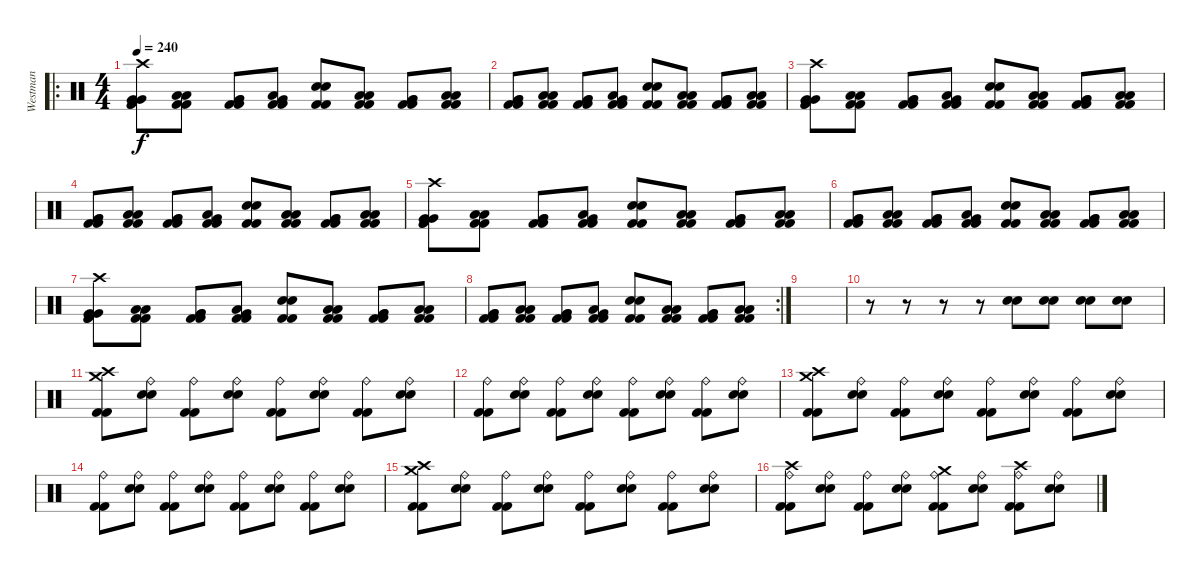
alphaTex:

\track ("Westman" "Westman") {instrument percussion}
\staff {score}
\articulation defaults
\ro
\ts (4 4)
\tempo 240
\clef neutral
\ks c
("Kick (hit) 2" "Kick (hit) 2" "Very Low Tom (hit)" "Very Low Tom (hit)" "Crash high (hit)").8{dy f} ("Kick (hit) 2" "Kick (hit) 2" "Low Tom (hit)" "Low Tom (hit)").8 ("Kick (hit) 2" "Kick (hit) 2" "Very Low Tom (hit)" "Very Low Tom (hit)").8 ("Kick (hit) 2" "Kick (hit) 2" "Low Tom (hit)" "Very Low Tom (hit)").8 ("Kick (hit) 2" "Kick (hit) 2" "Snare (hit) 2" "Electric Snare (hit)").8 ("Kick (hit) 2" "Kick (hit) 2" "Low Tom (hit)" "Low Tom (hit)").8 ("Kick (hit) 2" "Kick (hit) 2" "Very Low Tom (hit)" "Very Low Tom (hit)").8 ("Kick (hit) 2" "Kick (hit) 2" "Low Tom (hit)" "Low Tom (hit)").8 |
("Kick (hit) 2" "Kick (hit) 2" "Very Low Tom (hit)" "Very Low Tom (hit)").8 ("Kick (hit) 2" "Kick (hit) 2" "Low Tom (hit)" "Low Tom (hit)").8 ("Kick (hit) 2" "Kick (hit) 2" "Very Low Tom (hit)" "Very Low Tom (hit)").8 ("Kick (hit) 2" "Kick (hit) 2" "Low Tom (hit)" "Very Low Tom (hit)").8 ("Kick (hit) 2" "Kick (hit) 2" "Snare (hit) 2" "Electric Snare (hit)").8 ("Kick (hit) 2" "Kick (hit) 2" "Low Tom (hit)" "Low Tom (hit)").8 ("Kick (hit) 2" "Kick (hit) 2" "Very Low Tom (hit)" "Very Low Tom (hit)").8 ("Kick (hit) 2" "Kick (hit) 2" "Low Tom (hit)" "Low Tom (hit)").8 |
("Kick (hit) 2" "Kick (hit) 2" "Very Low Tom (hit)" "Very Low Tom (hit)" "Crash high (hit)").8 ("Kick (hit) 2" "Kick (hit) 2" "Low Tom (hit)" "Low Tom (hit)").8 ("Kick (hit) 2" "Kick (hit) 2" "Very Low Tom (hit)" "Very Low Tom (hit)").8 ("Kick (hit) 2" "Kick (hit) 2" "Low Tom (hit)" "Very Low Tom (hit)").8 ("Kick (hit) 2" "Kick (hit) 2" "Snare (hit) 2" "Electric Snare (hit)").8 ("Kick (hit) 2" "Kick (hit) 2" "Low Tom (hit)" "Low Tom (hit)").8 ("Kick (hit) 2" "Kick (hit) 2" "Very Low Tom (hit)" "Very Low Tom (hit)").8 ("Kick (hit) 2" "Kick (hit) 2" "Low Tom (hit)" "Low Tom (hit)").8 |
("Kick (hit) 2" "Kick (hit) 2" "Very Low Tom (hit)" "Very Low Tom (hit)").8 ("Kick (hit) 2" "Kick (hit) 2" "Low Tom (hit)" "Low Tom (hit)").8 ("Kick (hit) 2" "Kick (hit) 2" "Very Low Tom (hit)" "Very Low Tom (hit)").8 ("Kick (hit) 2" "Kick (hit) 2" "Low Tom (hit)" "Very Low Tom (hit)").8 ("Kick (hit) 2" "Kick (hit) 2" "Snare (hit) 2" "Electric Snare (hit)").8 ("Kick (hit) 2" "Kick (hit) 2" "Low Tom (hit)" "Low Tom (hit)").8 ("Kick (hit) 2" "Kick (hit) 2" "Very Low Tom (hit)" "Very Low Tom (hit)").8 ("Kick (hit) 2" "Kick (hit) 2" "Low Tom (hit)" "Low Tom (hit)").8 |
("Kick (hit) 2" "Kick (hit) 2" "Very Low Tom (hit)" "Very Low Tom (hit)" "Crash high (hit)").8 ("Kick (hit) 2" "Kick (hit) 2" "Low Tom (hit)" "Low Tom (hit)").8 ("Kick (hit) 2" "Kick (hit) 2" "Very Low Tom (hit)" "Very Low Tom (hit)").8 ("Kick (hit) 2" "Kick (hit) 2" "Low Tom (hit)" "Very Low Tom (hit)").8 ("Kick (hit) 2" "Kick (hit) 2" "Snare (hit) 2" "Electric Snare (hit)").8 ("Kick (hit) 2" "Kick (hit) 2" "Low Tom (hit)" "Low Tom (hit)").8 ("Kick (hit) 2" "Kick (hit) 2" "Very Low Tom (hit)" "Very Low Tom (hit)").8 ("Kick (hit) 2" "Kick (hit) 2" "Low Tom (hit)" "Low Tom (hit)").8 |
("Kick (hit) 2" "Kick (hit) 2" "Very Low Tom (hit)" "Very Low Tom (hit)").8 ("Kick (hit) 2" "Kick (hit) 2" "Low Tom (hit)" "Low Tom (hit)").8 ("Kick (hit) 2" "Kick (hit) 2" "Very Low Tom (hit)" "Very Low Tom (hit)").8 ("Kick (hit) 2" "Kick (hit) 2" "Low Tom (hit)" "Very Low Tom (hit)").8 ("Kick (hit) 2" "Kick (hit) 2" "Snare (hit) 2" "Electric Snare (hit)").8 ("Kick (hit) 2" "Kick (hit) 2" "Low Tom (hit)" "Low Tom (hit)").8 ("Kick (hit) 2" "Kick (hit) 2" "Very Low Tom (hit)" "Very Low Tom (hit)").8 ("Kick (hit) 2" "Kick (hit) 2" "Low Tom (hit)" "Low Tom (hit)").8 |
("Kick (hit) 2" "Kick (hit) 2" "Very Low Tom (hit)" "Very Low Tom (hit)" "Crash high (hit)").8 ("Kick (hit) 2" "Kick (hit) 2" "Low Tom (hit)" "Low Tom (hit)").8 ("Kick (hit) 2" "Kick (hit) 2" "Very Low Tom (hit)" "Very Low Tom (hit)").8 ("Kick (hit) 2" "Kick (hit) 2" "Low Tom (hit)" "Very Low Tom (hit)").8 ("Kick (hit) 2" "Kick (hit) 2" "Snare (hit) 2" "Electric Snare (hit)").8 ("Kick (hit) 2" "Kick (hit) 2" "Low Tom (hit)" "Low Tom (hit)").8 ("Kick (hit) 2" "Kick (hit) 2" "Very Low Tom (hit)" "Very Low Tom (hit)").8 ("Kick (hit) 2" "Kick (hit) 2" "Low Tom (hit)" "Low Tom (hit)").8 |
\rc 2
("Kick (hit) 2" "Kick (hit) 2" "Very Low Tom (hit)" "Very Low Tom (hit)").8 ("Kick (hit) 2" "Kick (hit) 2" "Low Tom (hit)" "Low Tom (hit)").8 ("Kick (hit) 2" "Kick (hit) 2" "Very Low Tom (hit)" "Very Low Tom (hit)").8 ("Kick (hit) 2" "Kick (hit) 2" "Low Tom (hit)" "Very Low Tom (hit)").8 ("Kick (hit) 2" "Kick (hit) 2" "Snare (hit) 2" "Electric Snare (hit)").8 ("Kick (hit) 2" "Kick (hit) 2" "Low Tom (hit)" "Low Tom (hit)").8 ("Kick (hit) 2" "Kick (hit) 2" "Very Low Tom (hit)" "Very Low Tom (hit)").8 ("Kick (hit) 2" "Kick (hit) 2" "Low Tom (hit)" "Low Tom (hit)").8 |
|
r.8 r.8 r.8 r.8 ("Electric Snare (hit)" "Snare (hit) 2").8 ("Electric Snare (hit)" "Snare (hit) 2").8 ("Electric Snare (hit)" "Snare (hit) 2").8 ("Electric Snare (hit)" "Snare (hit) 2").8 |
("Kick (hit) 2" "Kick (hit) 2" "Crash high (hit)" "Crash medium (hit)").8 ("Electric Snare (hit)" "Snare (hit) 2" "Ride (bell)").8 ("Kick (hit) 2" "Kick (hit) 2" "Ride (bell)").8 ("Electric Snare (hit)" "Snare (hit) 2" "Ride (bell)").8 ("Kick (hit) 2" "Kick (hit) 2" "Ride (bell)").8 ("Electric Snare (hit)" "Snare (hit) 2" "Ride (bell)").8 ("Kick (hit) 2" "Kick (hit) 2" "Ride (bell)").8 ("Electric Snare (hit)" "Snare (hit) 2" "Ride (bell)").8 |
("Kick (hit) 2" "Kick (hit) 2" "Ride (bell)").8 ("Electric Snare (hit)" "Snare (hit) 2" "Ride (bell)").8 ("Kick (hit) 2" "Kick (hit) 2" "Ride (bell)").8 ("Electric Snare (hit)" "Snare (hit) 2" "Ride (bell)").8 ("Kick (hit) 2" "Kick (hit) 2" "Ride (bell)").8 ("Electric Snare (hit)" "Snare (hit) 2" "Ride (bell)").8 ("Kick (hit) 2" "Kick (hit) 2" "Ride (bell)").8 ("Electric Snare (hit)" "Snare (hit) 2" "Ride (bell)").8 |
("Kick (hit) 2" "Kick (hit) 2" "Crash high (hit)" "Crash medium (hit)").8 ("Electric Snare (hit)" "Snare (hit) 2" "Ride (bell)").8 ("Kick (hit) 2" "Kick (hit) 2" "Ride (bell)").8 ("Electric Snare (hit)" "Snare (hit) 2" "Ride (bell)").8 ("Kick (hit) 2" "Kick (hit) 2" "Ride (bell)").8 ("Electric Snare (hit)" "Snare (hit) 2" "Ride (bell)").8 ("Kick (hit) 2" "Kick (hit) 2" "Ride (bell)").8 ("Electric Snare (hit)" "Snare (hit) 2" "Ride (bell)").8 |
("Kick (hit) 2" "Kick (hit) 2" "Ride (bell)").8 ("Electric Snare (hit)" "Snare (hit) 2" "Ride (bell)").8 ("Kick (hit) 2" "Kick (hit) 2" "Ride (bell)").8 ("Electric Snare (hit)" "Snare (hit) 2" "Ride (bell)").8 ("Kick (hit) 2" "Kick (hit) 2" "Ride (bell)").8 ("Electric Snare (hit)" "Snare (hit) 2" "Ride (bell)").8 ("Kick (hit) 2" "Kick (hit) 2" "Ride (bell)").8 ("Electric Snare (hit)" "Snare (hit) 2" "Ride (bell)").8 |
("Kick (hit) 2" "Kick (hit) 2" "Crash high (hit)" "Crash medium (hit)").8 ("Electric Snare (hit)" "Snare (hit) 2" "Ride (bell)").8 ("Kick (hit) 2" "Kick (hit) 2" "Ride (bell)").8 ("Electric Snare (hit)" "Snare (hit) 2" "Ride (bell)").8 ("Kick (hit) 2" "Kick (hit) 2" "Ride (bell)").8 ("Electric Snare (hit)" "Snare (hit) 2" "Ride (bell)").8 ("Kick (hit) 2" "Kick (hit) 2" "Ride (bell)").8 ("Electric Snare (hit)" "Snare (hit) 2" "Ride (bell)").8 |
("Kick (hit) 2" "Kick (hit) 2" "Ride (bell)" "Crash high (hit)").8 ("Electric Snare (hit)" "Snare (hit) 2" "Ride (bell)").8 ("Kick (hit) 2" "Kick (hit) 2" "Ride (bell)").8 ("Electric Snare (hit)" "Snare (hit) 2" "Ride (bell)").8 ("Kick (hit) 2" "Kick (hit) 2" "Ride (bell)" "Crash medium (hit)").8 ("Electric Snare (hit)" "Snare (hit) 2" "Ride (bell)").8 ("Kick (hit) 2" "Kick (hit) 2" "Ride (bell)" "Crash high (hit)").8 ("Electric Snare (hit)" "Snare (hit) 2" "Ride (bell)").8
